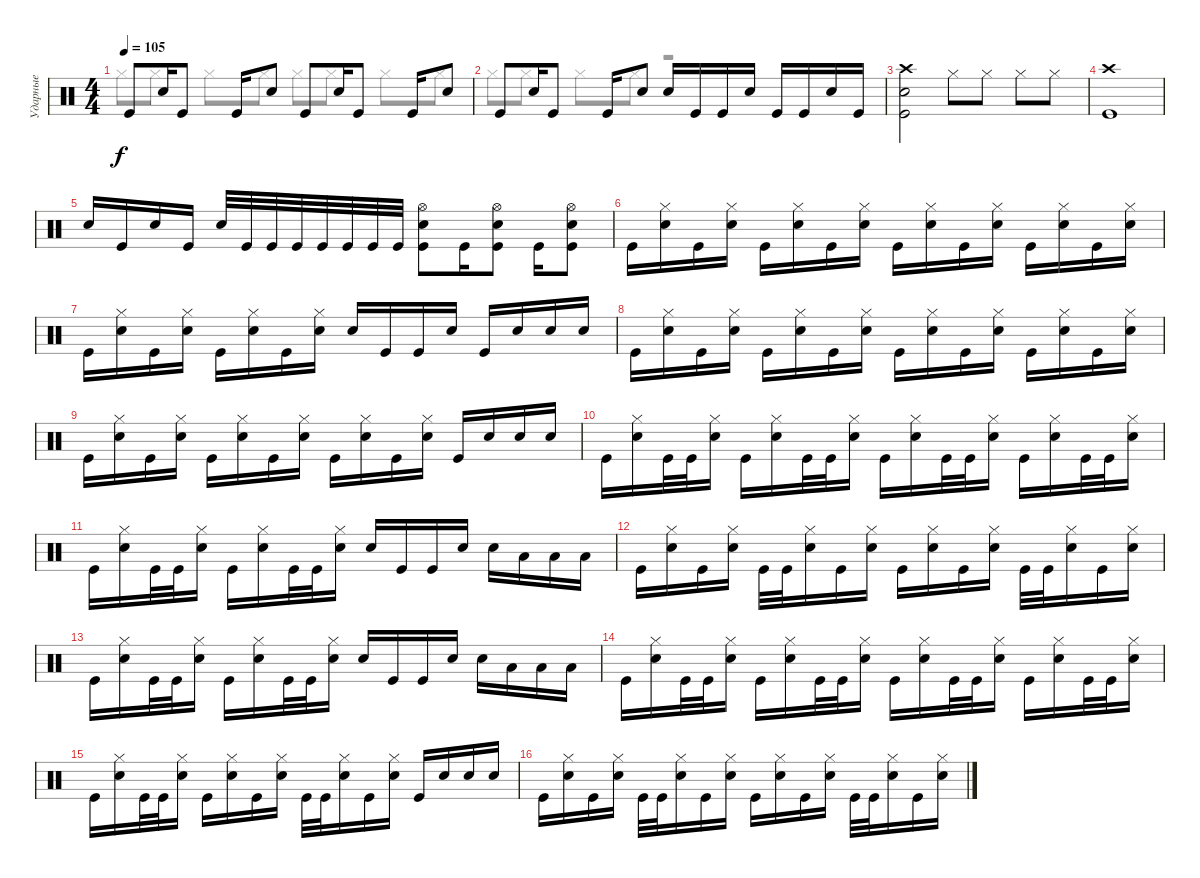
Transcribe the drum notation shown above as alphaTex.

\track ("Ударные" "Ударные") {instrument percussion}
\staff {score}
\articulation defaults
\voice
\ts (4 4)
\tempo 105
\clef neutral
\ks c "Kick (hit)".8{dy f} "Snare (hit) 2".16 "Kick (hit)".8 "Kick (hit)".16 "Snare (hit) 2".8 "Kick (hit)".8 "Snare (hit) 2".16 "Kick (hit)".8 "Kick (hit)".16 "Snare (hit) 2".8
|
"Kick (hit)".8 "Snare (hit) 2".16 "Kick (hit)".8 "Kick (hit)".16 "Snare (hit) 2".8 "Snare (hit) 2".16 "Kick (hit)".16 "Kick (hit)".16 "Snare (hit) 2".16 "Kick (hit)".16 "Kick (hit)".16 "Snare (hit) 2".16 "Kick (hit)".16 |
("Kick (hit)" "Snare (hit) 2" "Crash high (hit)").2 "Hi-Hat (closed)".8 "Hi-Hat (closed)".8 "Hi-Hat (closed)".8 "Hi-Hat (closed)".8 |
("Crash high (hit)" "Kick (hit)").1 |
"Snare (hit) 2".16 "Kick (hit)".16 "Snare (hit) 2".16 "Kick (hit)".16 "Snare (hit) 2".32 "Kick (hit)".32 "Kick (hit)".32 "Kick (hit)".32 "Kick (hit)".32 "Kick (hit)".32 "Kick (hit)".32 "Kick (hit)".32 ("Kick (hit)" "Snare (hit) 2" "Hi-Hat (open)").8 "Kick (hit)".16 ("Kick (hit)" "Snare (hit) 2" "Hi-Hat (open)").8 "Kick (hit)".16 ("Kick (hit)" "Snare (hit) 2" "Hi-Hat (open)").8 |
"Kick (hit)".16 ("Hi-Hat (closed)" "Snare (hit) 2").16 "Kick (hit)".16 ("Hi-Hat (closed)" "Snare (hit) 2").16 "Kick (hit)".16 ("Hi-Hat (closed)" "Snare (hit) 2").16 "Kick (hit)".16 ("Hi-Hat (closed)" "Snare (hit) 2").16 "Kick (hit)".16 ("Hi-Hat (closed)" "Snare (hit) 2").16 "Kick (hit)".16 ("Hi-Hat (closed)" "Snare (hit) 2").16 "Kick (hit)".16 ("Hi-Hat (closed)" "Snare (hit) 2").16 "Kick (hit)".16 ("Hi-Hat (closed)" "Snare (hit) 2").16 |
"Kick (hit)".16 ("Hi-Hat (closed)" "Snare (hit) 2").16 "Kick (hit)".16 ("Hi-Hat (closed)" "Snare (hit) 2").16 "Kick (hit)".16 ("Hi-Hat (closed)" "Snare (hit) 2").16 "Kick (hit)".16 ("Hi-Hat (closed)" "Snare (hit) 2").16 "Snare (hit) 2".16 "Kick (hit)".16 "Kick (hit)".16 "Snare (hit) 2".16 "Kick (hit)".16 "Snare (hit) 2".16 "Snare (hit) 2".16 "Snare (hit) 2".16 |
"Kick (hit)".16 ("Hi-Hat (closed)" "Snare (hit) 2").16 "Kick (hit)".16 ("Hi-Hat (closed)" "Snare (hit) 2").16 "Kick (hit)".16 ("Hi-Hat (closed)" "Snare (hit) 2").16 "Kick (hit)".16 ("Hi-Hat (closed)" "Snare (hit) 2").16 "Kick (hit)".16 ("Hi-Hat (closed)" "Snare (hit) 2").16 "Kick (hit)".16 ("Hi-Hat (closed)" "Snare (hit) 2").16 "Kick (hit)".16 ("Hi-Hat (closed)" "Snare (hit) 2").16 "Kick (hit)".16 ("Hi-Hat (closed)" "Snare (hit) 2").16 |
"Kick (hit)".16 ("Hi-Hat (closed)" "Snare (hit) 2").16 "Kick (hit)".16 ("Hi-Hat (closed)" "Snare (hit) 2").16 "Kick (hit)".16 ("Hi-Hat (closed)" "Snare (hit) 2").16 "Kick (hit)".16 ("Hi-Hat (closed)" "Snare (hit) 2").16 "Kick (hit)".16 ("Hi-Hat (closed)" "Snare (hit) 2").16 "Kick (hit)".16 ("Hi-Hat (closed)" "Snare (hit) 2").16 "Kick (hit)".16 "Snare (hit) 2".16 "Snare (hit) 2".16 "Snare (hit) 2".16 |
"Kick (hit)".16 ("Hi-Hat (closed)" "Snare (hit) 2").16 "Kick (hit)".32 "Kick (hit)".32 ("Hi-Hat (closed)" "Snare (hit) 2").16 "Kick (hit)".16 ("Hi-Hat (closed)" "Snare (hit) 2").16 "Kick (hit)".32 "Kick (hit)".32 ("Hi-Hat (closed)" "Snare (hit) 2").16 "Kick (hit)".16 ("Hi-Hat (closed)" "Snare (hit) 2").16 "Kick (hit)".32 "Kick (hit)".32 ("Hi-Hat (closed)" "Snare (hit) 2").16 "Kick (hit)".16 ("Hi-Hat (closed)" "Snare (hit) 2").16 "Kick (hit)".32 "Kick (hit)".32 ("Hi-Hat (closed)" "Snare (hit) 2").16 |
"Kick (hit)".16 ("Hi-Hat (closed)" "Snare (hit) 2").16 "Kick (hit)".32 "Kick (hit)".32 ("Hi-Hat (closed)" "Snare (hit) 2").16 "Kick (hit)".16 ("Hi-Hat (closed)" "Snare (hit) 2").16 "Kick (hit)".32 "Kick (hit)".32 ("Hi-Hat (closed)" "Snare (hit) 2").16 "Snare (hit) 2".16 "Kick (hit)".16 "Kick (hit)".16 "Snare (hit) 2".16 "Snare (hit) 2".16 "Low Floor Tom (hit)".16 "Low Floor Tom (hit)".16 "Low Floor Tom (hit)".16 |
"Kick (hit)".16 ("Hi-Hat (closed)" "Snare (hit) 2").16 "Kick (hit)".16 ("Hi-Hat (closed)" "Snare (hit) 2").16 "Kick (hit)".32 "Kick (hit)".32 ("Hi-Hat (closed)" "Snare (hit) 2").16 "Kick (hit)".16 ("Hi-Hat (closed)" "Snare (hit) 2").16 "Kick (hit)".16 ("Hi-Hat (closed)" "Snare (hit) 2").16 "Kick (hit)".16 ("Hi-Hat (closed)" "Snare (hit) 2").16 "Kick (hit)".32 "Kick (hit)".32 ("Hi-Hat (closed)" "Snare (hit) 2").16 "Kick (hit)".16 ("Hi-Hat (closed)" "Snare (hit) 2").16 |
"Kick (hit)".16 ("Hi-Hat (closed)" "Snare (hit) 2").16 "Kick (hit)".32 "Kick (hit)".32 ("Hi-Hat (closed)" "Snare (hit) 2").16 "Kick (hit)".16 ("Hi-Hat (closed)" "Snare (hit) 2").16 "Kick (hit)".32 "Kick (hit)".32 ("Hi-Hat (closed)" "Snare (hit) 2").16 "Snare (hit) 2".16 "Kick (hit)".16 "Kick (hit)".16 "Snare (hit) 2".16 "Snare (hit) 2".16 "Low Floor Tom (hit)".16 "Low Floor Tom (hit)".16 "Low Floor Tom (hit)".16 |
"Kick (hit)".16 ("Hi-Hat (closed)" "Snare (hit) 2").16 "Kick (hit)".32 "Kick (hit)".32 ("Hi-Hat (closed)" "Snare (hit) 2").16 "Kick (hit)".16 ("Hi-Hat (closed)" "Snare (hit) 2").16 "Kick (hit)".32 "Kick (hit)".32 ("Hi-Hat (closed)" "Snare (hit) 2").16 "Kick (hit)".16 ("Hi-Hat (closed)" "Snare (hit) 2").16 "Kick (hit)".32 "Kick (hit)".32 ("Hi-Hat (closed)" "Snare (hit) 2").16 "Kick (hit)".16 ("Hi-Hat (closed)" "Snare (hit) 2").16 "Kick (hit)".32 "Kick (hit)".32 ("Hi-Hat (closed)" "Snare (hit) 2").16 |
"Kick (hit)".16 ("Hi-Hat (closed)" "Snare (hit) 2").16 "Kick (hit)".32 "Kick (hit)".32 ("Hi-Hat (closed)" "Snare (hit) 2").16 "Kick (hit)".16 ("Hi-Hat (closed)" "Snare (hit) 2").16 "Kick (hit)".16 ("Hi-Hat (closed)" "Snare (hit) 2").16 "Kick (hit)".32 "Kick (hit)".32 ("Hi-Hat (closed)" "Snare (hit) 2").16 "Kick (hit)".16 ("Hi-Hat (closed)" "Snare (hit) 2").16 "Kick (hit)".16 "Snare (hit) 2".16 "Snare (hit) 2".16 "Snare (hit) 2".16 |
"Kick (hit)".16 ("Hi-Hat (closed)" "Snare (hit) 2").16 "Kick (hit)".16 ("Hi-Hat (closed)" "Snare (hit) 2").16 "Kick (hit)".32 "Kick (hit)".32 ("Hi-Hat (closed)" "Snare (hit) 2").16 "Kick (hit)".16 ("Hi-Hat (closed)" "Snare (hit) 2").16 "Kick (hit)".16 ("Hi-Hat (closed)" "Snare (hit) 2").16 "Kick (hit)".16 ("Hi-Hat (closed)" "Snare (hit) 2").16 "Kick (hit)".32 "Kick (hit)".32 ("Hi-Hat (closed)" "Snare (hit) 2").16 "Kick (hit)".16 ("Hi-Hat (closed)" "Snare (hit) 2").16
\voice
\clef neutral
\ottava regular
\simile none
\ks c "Hi-Hat (closed)".8{dy f} "Hi-Hat (closed)".8 "Hi-Hat (closed)".8 "Hi-Hat (closed)".8 "Hi-Hat (closed)".8 "Hi-Hat (closed)".8 "Hi-Hat (closed)".8 "Hi-Hat (closed)".8
|
"Hi-Hat (closed)".8 "Hi-Hat (closed)".8 "Hi-Hat (closed)".8 "Hi-Hat (closed)".8 r.2 |
|
|
|
|
|
|
|
|
|
|
|
|
|
